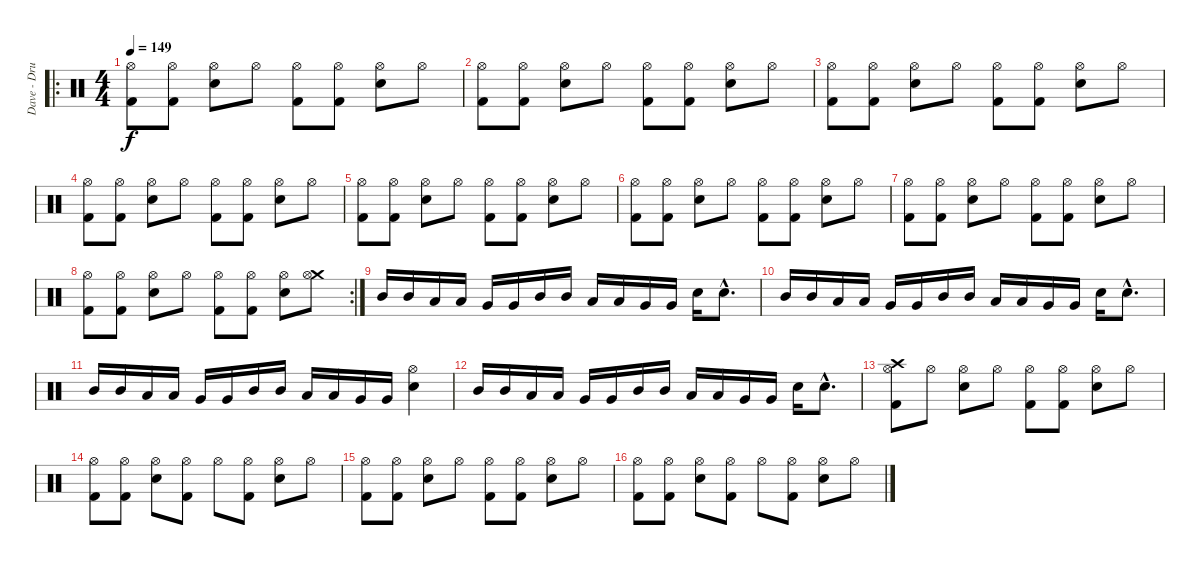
\track ("Dave - Drums" "Dave - Dru") {instrument percussion}
\staff {score}
\articulation defaults
\ro
\ts (4 4)
\tempo 149
\clef neutral
\ks c
("Hi-Hat (open)" "Kick (hit) 2").8{dy f} ("Hi-Hat (open)" "Kick (hit) 2").8 ("Hi-Hat (open)" "Electric Snare (hit)").8 "Hi-Hat (open)".8 ("Hi-Hat (open)" "Kick (hit) 2").8 ("Hi-Hat (open)" "Kick (hit) 2").8 ("Hi-Hat (open)" "Electric Snare (hit)").8 "Hi-Hat (open)".8 |
("Hi-Hat (open)" "Kick (hit) 2").8 ("Hi-Hat (open)" "Kick (hit) 2").8 ("Hi-Hat (open)" "Electric Snare (hit)").8 "Hi-Hat (open)".8 ("Hi-Hat (open)" "Kick (hit) 2").8 ("Hi-Hat (open)" "Kick (hit) 2").8 ("Hi-Hat (open)" "Electric Snare (hit)").8 "Hi-Hat (open)".8 |
("Hi-Hat (open)" "Kick (hit) 2").8 ("Hi-Hat (open)" "Kick (hit) 2").8 ("Hi-Hat (open)" "Electric Snare (hit)").8 "Hi-Hat (open)".8 ("Hi-Hat (open)" "Kick (hit) 2").8 ("Hi-Hat (open)" "Kick (hit) 2").8 ("Hi-Hat (open)" "Electric Snare (hit)").8 "Hi-Hat (open)".8 |
("Hi-Hat (open)" "Kick (hit) 2").8 ("Hi-Hat (open)" "Kick (hit) 2").8 ("Hi-Hat (open)" "Electric Snare (hit)").8 "Hi-Hat (open)".8 ("Hi-Hat (open)" "Kick (hit) 2").8 ("Hi-Hat (open)" "Kick (hit) 2").8 ("Hi-Hat (open)" "Electric Snare (hit)").8 "Hi-Hat (open)".8 |
("Hi-Hat (open)" "Kick (hit) 2").8 ("Hi-Hat (open)" "Kick (hit) 2").8 ("Hi-Hat (open)" "Electric Snare (hit)").8 "Hi-Hat (open)".8 ("Hi-Hat (open)" "Kick (hit) 2").8 ("Hi-Hat (open)" "Kick (hit) 2").8 ("Hi-Hat (open)" "Electric Snare (hit)").8 "Hi-Hat (open)".8 |
("Hi-Hat (open)" "Kick (hit) 2").8 ("Hi-Hat (open)" "Kick (hit) 2").8 ("Hi-Hat (open)" "Electric Snare (hit)").8 "Hi-Hat (open)".8 ("Hi-Hat (open)" "Kick (hit) 2").8 ("Hi-Hat (open)" "Kick (hit) 2").8 ("Hi-Hat (open)" "Electric Snare (hit)").8 "Hi-Hat (open)".8 |
("Hi-Hat (open)" "Kick (hit) 2").8 ("Hi-Hat (open)" "Kick (hit) 2").8 ("Hi-Hat (open)" "Electric Snare (hit)").8 "Hi-Hat (open)".8 ("Hi-Hat (open)" "Kick (hit) 2").8 ("Hi-Hat (open)" "Kick (hit) 2").8 ("Hi-Hat (open)" "Electric Snare (hit)").8 "Hi-Hat (open)".8 |
\rc 2
("Hi-Hat (open)" "Kick (hit) 2").8 ("Hi-Hat (open)" "Kick (hit) 2").8 ("Hi-Hat (open)" "Electric Snare (hit)").8 "Hi-Hat (open)".8 ("Hi-Hat (open)" "Kick (hit) 2").8 ("Hi-Hat (open)" "Kick (hit) 2").8 ("Hi-Hat (open)" "Electric Snare (hit)").8 ("Crash medium (hit)" "Hi-Hat (open)").8 |
"Mid Tom (hit)".16 "Mid Tom (hit)".16 "Low Tom (hit)".16 "Low Tom (hit)".16 "Very Low Tom (hit)".16 "Very Low Tom (hit)".16 "Mid Tom (hit)".16 "Mid Tom (hit)".16 "Low Tom (hit)".16 "Low Tom (hit)".16 "Very Low Tom (hit)".16 "Very Low Tom (hit)".16 "Electric Snare (hit)".16 "Electric Snare (hit)"{hac}.8{d} |
"Mid Tom (hit)".16 "Mid Tom (hit)".16 "Low Tom (hit)".16 "Low Tom (hit)".16 "Very Low Tom (hit)".16 "Very Low Tom (hit)".16 "Mid Tom (hit)".16 "Mid Tom (hit)".16 "Low Tom (hit)".16 "Low Tom (hit)".16 "Very Low Tom (hit)".16 "Very Low Tom (hit)".16 "Electric Snare (hit)".16 "Electric Snare (hit)"{hac}.8{d} |
"Mid Tom (hit)".16 "Mid Tom (hit)".16 "Low Tom (hit)".16 "Low Tom (hit)".16 "Very Low Tom (hit)".16 "Very Low Tom (hit)".16 "Mid Tom (hit)".16 "Mid Tom (hit)".16 "Low Tom (hit)".16 "Low Tom (hit)".16 "Very Low Tom (hit)".16 "Very Low Tom (hit)".16 ("Hi-Hat (open)" "Electric Snare (hit)").4 |
"Mid Tom (hit)".16 "Mid Tom (hit)".16 "Low Tom (hit)".16 "Low Tom (hit)".16 "Very Low Tom (hit)".16 "Very Low Tom (hit)".16 "Mid Tom (hit)".16 "Mid Tom (hit)".16 "Low Tom (hit)".16 "Low Tom (hit)".16 "Very Low Tom (hit)".16 "Very Low Tom (hit)".16 "Electric Snare (hit)".16 "Electric Snare (hit)"{hac}.8{d} |
("Crash high (hit)" "Hi-Hat (open)" "Kick (hit) 2").8 "Hi-Hat (open)".8 ("Hi-Hat (open)" "Electric Snare (hit)").8 "Hi-Hat (open)".8 ("Hi-Hat (open)" "Kick (hit) 2").8 ("Hi-Hat (open)" "Kick (hit) 2").8 ("Hi-Hat (open)" "Electric Snare (hit)").8 "Hi-Hat (open)".8 |
("Hi-Hat (open)" "Kick (hit) 2").8 ("Hi-Hat (open)" "Kick (hit) 2").8 ("Hi-Hat (open)" "Electric Snare (hit)").8 ("Hi-Hat (open)" "Kick (hit) 2").8 "Hi-Hat (open)".8 ("Hi-Hat (open)" "Kick (hit) 2").8 ("Hi-Hat (open)" "Electric Snare (hit)").8 "Hi-Hat (open)".8 |
("Hi-Hat (open)" "Kick (hit) 2").8 ("Hi-Hat (open)" "Kick (hit) 2").8 ("Hi-Hat (open)" "Electric Snare (hit)").8 "Hi-Hat (open)".8 ("Hi-Hat (open)" "Kick (hit) 2").8 ("Hi-Hat (open)" "Kick (hit) 2").8 ("Hi-Hat (open)" "Electric Snare (hit)").8 "Hi-Hat (open)".8 |
("Hi-Hat (open)" "Kick (hit) 2").8 ("Hi-Hat (open)" "Kick (hit) 2").8 ("Hi-Hat (open)" "Electric Snare (hit)").8 ("Hi-Hat (open)" "Kick (hit) 2").8 "Hi-Hat (open)".8 ("Hi-Hat (open)" "Kick (hit) 2").8 ("Hi-Hat (open)" "Electric Snare (hit)").8 "Hi-Hat (open)".8
